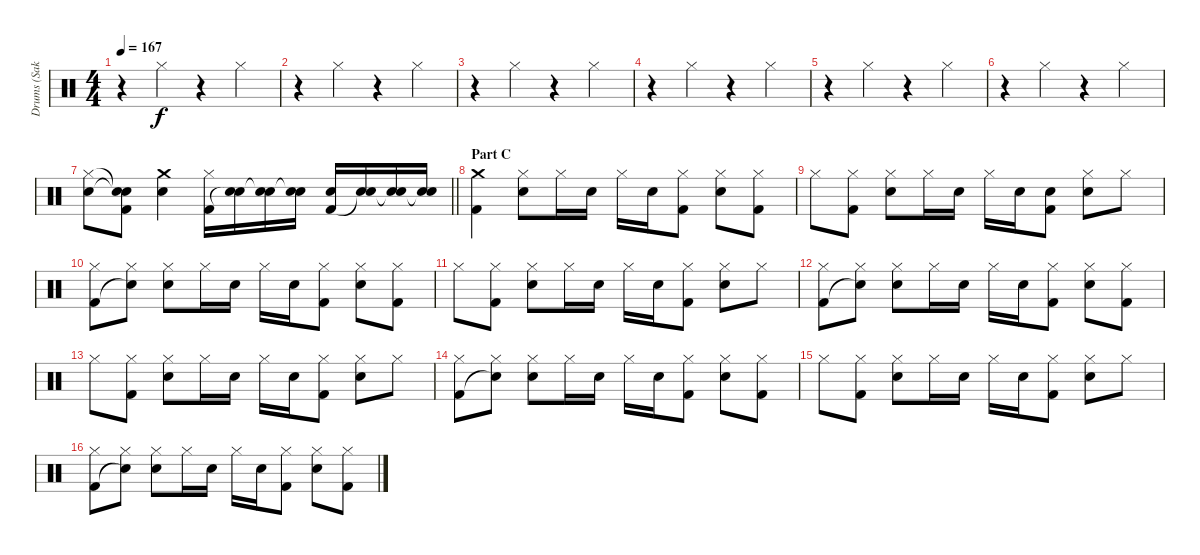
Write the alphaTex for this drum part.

\track ("Drums (Sakura)" "Drums (Sak") {instrument percussion}
\staff {score}
\articulation defaults
\ts (4 4)
\tempo 167
\clef neutral
\ks c
r.4{dy f} "Hi-Hat (closed)".4 r.4 "Hi-Hat (closed)".4 |
r.4 "Hi-Hat (closed)".4 r.4 "Hi-Hat (closed)".4 |
r.4 "Hi-Hat (closed)".4 r.4 "Hi-Hat (closed)".4 |
r.4 "Hi-Hat (closed)".4 r.4 "Hi-Hat (closed)".4 |
r.4 "Hi-Hat (closed)".4 r.4 "Hi-Hat (closed)".4 |
r.4 "Hi-Hat (closed)".4 r.4 "Hi-Hat (closed)".4 |
\barLineRight lightlight
("Hi-Hat (closed)" "Electric Snare (hit)").8 ("Snare (hit)"{t} "Snare (hit)"{t} "Kick (hit) 2").8 ("Crash medium (hit)" "Electric Snare (hit)").4 ("Hi-Hat (closed)" "Kick (hit) 2").16 ("Electric Snare (hit)" "Snare (hit)"{t}).16 ("Electric Snare (hit)" "Snare (hit)"{t}).16 ("Electric Snare (hit)" "Snare (hit)"{t}).16 ("Electric Snare (hit)" "Kick (hit) 2").16 ("Electric Snare (hit)" "Snare (hit)"{t}).16 ("Electric Snare (hit)" "Snare (hit)"{t}).16 ("Electric Snare (hit)" "Snare (hit)"{t}).16 |
\section ("" "Part C")
("Crash medium (hit)" "Kick (hit) 2").4 ("Hi-Hat (closed)" "Electric Snare (hit)").8 "Hi-Hat (closed)".16 "Electric Snare (hit)".16 "Hi-Hat (closed)".16 "Electric Snare (hit)".16 ("Hi-Hat (closed)" "Kick (hit) 2").8 ("Hi-Hat (closed)" "Electric Snare (hit)").8 ("Hi-Hat (closed)" "Kick (hit) 2").8 |
"Hi-Hat (closed)".8 ("Hi-Hat (closed)" "Kick (hit) 2").8 ("Hi-Hat (closed)" "Electric Snare (hit)").8 "Hi-Hat (closed)".16 "Electric Snare (hit)".16 "Hi-Hat (closed)".16 "Electric Snare (hit)".16 ("Electric Snare (hit)" "Kick (hit) 2").8 ("Hi-Hat (closed)" "Electric Snare (hit)").8 "Hi-Hat (closed)".8 |
("Hi-Hat (closed)" "Kick (hit) 2").8 ("Hi-Hat (closed)" "Snare (hit)"{t}).8 ("Hi-Hat (closed)" "Electric Snare (hit)").8 "Hi-Hat (closed)".16 "Electric Snare (hit)".16 "Hi-Hat (closed)".16 "Electric Snare (hit)".16 ("Hi-Hat (closed)" "Kick (hit) 2").8 ("Hi-Hat (closed)" "Electric Snare (hit)").8 ("Hi-Hat (closed)" "Kick (hit) 2").8 |
"Hi-Hat (closed)".8 ("Hi-Hat (closed)" "Kick (hit) 2").8 ("Hi-Hat (closed)" "Electric Snare (hit)").8 "Hi-Hat (closed)".16 "Electric Snare (hit)".16 "Hi-Hat (closed)".16 "Electric Snare (hit)".16 ("Hi-Hat (closed)" "Kick (hit) 2").8 ("Hi-Hat (closed)" "Electric Snare (hit)").8 "Hi-Hat (closed)".8 |
("Hi-Hat (closed)" "Kick (hit) 2").8 ("Hi-Hat (closed)" "Snare (hit)"{t}).8 ("Hi-Hat (closed)" "Electric Snare (hit)").8 "Hi-Hat (closed)".16 "Electric Snare (hit)".16 "Hi-Hat (closed)".16 "Electric Snare (hit)".16 ("Hi-Hat (closed)" "Kick (hit) 2").8 ("Hi-Hat (closed)" "Electric Snare (hit)").8 ("Hi-Hat (closed)" "Kick (hit) 2").8 |
"Hi-Hat (closed)".8 ("Hi-Hat (closed)" "Kick (hit) 2").8 ("Hi-Hat (closed)" "Electric Snare (hit)").8 "Hi-Hat (closed)".16 "Electric Snare (hit)".16 "Hi-Hat (closed)".16 "Electric Snare (hit)".16 ("Hi-Hat (closed)" "Kick (hit) 2").8 ("Hi-Hat (closed)" "Electric Snare (hit)").8 "Hi-Hat (closed)".8 |
("Hi-Hat (closed)" "Kick (hit) 2").8 ("Hi-Hat (closed)" "Snare (hit)"{t}).8 ("Hi-Hat (closed)" "Electric Snare (hit)").8 "Hi-Hat (closed)".16 "Electric Snare (hit)".16 "Hi-Hat (closed)".16 "Electric Snare (hit)".16 ("Hi-Hat (closed)" "Kick (hit) 2").8 ("Hi-Hat (closed)" "Electric Snare (hit)").8 ("Hi-Hat (closed)" "Kick (hit) 2").8 |
"Hi-Hat (closed)".8 ("Hi-Hat (closed)" "Kick (hit) 2").8 ("Hi-Hat (closed)" "Electric Snare (hit)").8 "Hi-Hat (closed)".16 "Electric Snare (hit)".16 "Hi-Hat (closed)".16 "Electric Snare (hit)".16 ("Hi-Hat (closed)" "Kick (hit) 2").8 ("Hi-Hat (closed)" "Electric Snare (hit)").8 "Hi-Hat (closed)".8 |
("Hi-Hat (closed)" "Kick (hit) 2").8 ("Hi-Hat (closed)" "Snare (hit)"{t}).8 ("Hi-Hat (closed)" "Electric Snare (hit)").8 "Hi-Hat (closed)".16 "Electric Snare (hit)".16 "Hi-Hat (closed)".16 "Electric Snare (hit)".16 ("Hi-Hat (closed)" "Kick (hit) 2").8 ("Hi-Hat (closed)" "Electric Snare (hit)").8 ("Hi-Hat (closed)" "Kick (hit) 2").8
